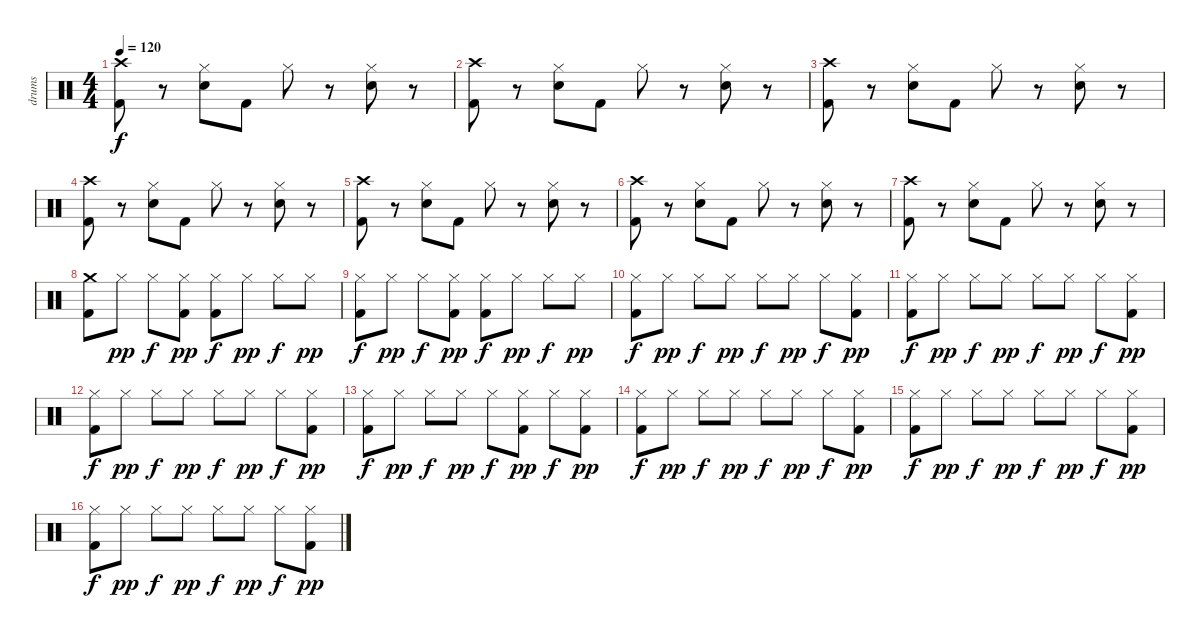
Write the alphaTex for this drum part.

\track ("drums" "drums") {instrument percussion}
\staff {score}
\articulation defaults
\ts (4 4)
\tempo 120
\clef neutral
\ks c
("Crash high (hit)" "Kick (hit) 2").8{dy f} r.8 ("Hi-Hat (closed)" "Snare (hit) 2").8 "Kick (hit) 2".8 "Hi-Hat (closed)".8 r.8 ("Hi-Hat (closed)" "Snare (hit) 2").8 r.8 |
("Crash high (hit)" "Kick (hit) 2").8 r.8 ("Hi-Hat (closed)" "Snare (hit) 2").8 "Kick (hit) 2".8 "Hi-Hat (closed)".8 r.8 ("Hi-Hat (closed)" "Snare (hit) 2").8 r.8 |
("Crash high (hit)" "Kick (hit) 2").8 r.8 ("Hi-Hat (closed)" "Snare (hit) 2").8 "Kick (hit) 2".8 "Hi-Hat (closed)".8 r.8 ("Hi-Hat (closed)" "Snare (hit) 2").8 r.8 |
("Crash high (hit)" "Kick (hit) 2").8 r.8 ("Hi-Hat (closed)" "Snare (hit) 2").8 "Kick (hit) 2".8 "Hi-Hat (closed)".8 r.8 ("Hi-Hat (closed)" "Snare (hit) 2").8 r.8 |
("Crash high (hit)" "Kick (hit) 2").8 r.8 ("Hi-Hat (closed)" "Snare (hit) 2").8 "Kick (hit) 2".8 "Hi-Hat (closed)".8 r.8 ("Hi-Hat (closed)" "Snare (hit) 2").8 r.8 |
("Crash high (hit)" "Kick (hit) 2").8 r.8 ("Hi-Hat (closed)" "Snare (hit) 2").8 "Kick (hit) 2".8 "Hi-Hat (closed)".8 r.8 ("Hi-Hat (closed)" "Snare (hit) 2").8 r.8 |
("Crash high (hit)" "Kick (hit) 2").8 r.8 ("Hi-Hat (closed)" "Snare (hit) 2").8 "Kick (hit) 2".8 "Hi-Hat (closed)".8 r.8 ("Hi-Hat (closed)" "Snare (hit) 2").8 r.8 |
("Crash medium (hit)" "Kick (hit) 2").8 "Hi-Hat (closed)".8{dy pp} "Hi-Hat (closed)".8{dy f} ("Hi-Hat (closed)" "Kick (hit) 2").8{dy pp} ("Hi-Hat (closed)" "Kick (hit) 2").8{dy f} "Hi-Hat (closed)".8{dy pp} "Hi-Hat (closed)".8{dy f} "Hi-Hat (closed)".8{dy pp} |
("Hi-Hat (closed)" "Kick (hit) 2").8{dy f} "Hi-Hat (closed)".8{dy pp} "Hi-Hat (closed)".8{dy f} ("Hi-Hat (closed)" "Kick (hit) 2").8{dy pp} ("Hi-Hat (closed)" "Kick (hit) 2").8{dy f} "Hi-Hat (closed)".8{dy pp} "Hi-Hat (closed)".8{dy f} "Hi-Hat (closed)".8{dy pp} |
("Hi-Hat (closed)" "Kick (hit) 2").8{dy f} "Hi-Hat (closed)".8{dy pp} "Hi-Hat (closed)".8{dy f} "Hi-Hat (closed)".8{dy pp} "Hi-Hat (closed)".8{dy f} "Hi-Hat (closed)".8{dy pp} "Hi-Hat (closed)".8{dy f} ("Hi-Hat (closed)" "Kick (hit) 2").8{dy pp} |
("Hi-Hat (closed)" "Kick (hit) 2").8{dy f} "Hi-Hat (closed)".8{dy pp} "Hi-Hat (closed)".8{dy f} "Hi-Hat (closed)".8{dy pp} "Hi-Hat (closed)".8{dy f} "Hi-Hat (closed)".8{dy pp} "Hi-Hat (closed)".8{dy f} ("Hi-Hat (closed)" "Kick (hit) 2").8{dy pp} |
("Hi-Hat (closed)" "Kick (hit) 2").8{dy f} "Hi-Hat (closed)".8{dy pp} "Hi-Hat (closed)".8{dy f} "Hi-Hat (closed)".8{dy pp} "Hi-Hat (closed)".8{dy f} "Hi-Hat (closed)".8{dy pp} "Hi-Hat (closed)".8{dy f} ("Hi-Hat (closed)" "Kick (hit) 2").8{dy pp} |
("Hi-Hat (closed)" "Kick (hit) 2").8{dy f} "Hi-Hat (closed)".8{dy pp} "Hi-Hat (closed)".8{dy f} "Hi-Hat (closed)".8{dy pp} "Hi-Hat (closed)".8{dy f} ("Hi-Hat (closed)" "Kick (hit) 2").8{dy pp} "Hi-Hat (closed)".8{dy f} ("Hi-Hat (closed)" "Kick (hit) 2").8{dy pp} |
("Hi-Hat (closed)" "Kick (hit) 2").8{dy f} "Hi-Hat (closed)".8{dy pp} "Hi-Hat (closed)".8{dy f} "Hi-Hat (closed)".8{dy pp} "Hi-Hat (closed)".8{dy f} "Hi-Hat (closed)".8{dy pp} "Hi-Hat (closed)".8{dy f} ("Hi-Hat (closed)" "Kick (hit) 2").8{dy pp} |
("Hi-Hat (closed)" "Kick (hit) 2").8{dy f} "Hi-Hat (closed)".8{dy pp} "Hi-Hat (closed)".8{dy f} "Hi-Hat (closed)".8{dy pp} "Hi-Hat (closed)".8{dy f} "Hi-Hat (closed)".8{dy pp} "Hi-Hat (closed)".8{dy f} ("Hi-Hat (closed)" "Kick (hit) 2").8{dy pp} |
("Hi-Hat (closed)" "Kick (hit) 2").8{dy f} "Hi-Hat (closed)".8{dy pp} "Hi-Hat (closed)".8{dy f} "Hi-Hat (closed)".8{dy pp} "Hi-Hat (closed)".8{dy f} "Hi-Hat (closed)".8{dy pp} "Hi-Hat (closed)".8{dy f} ("Hi-Hat (closed)" "Kick (hit) 2").8{dy pp}
